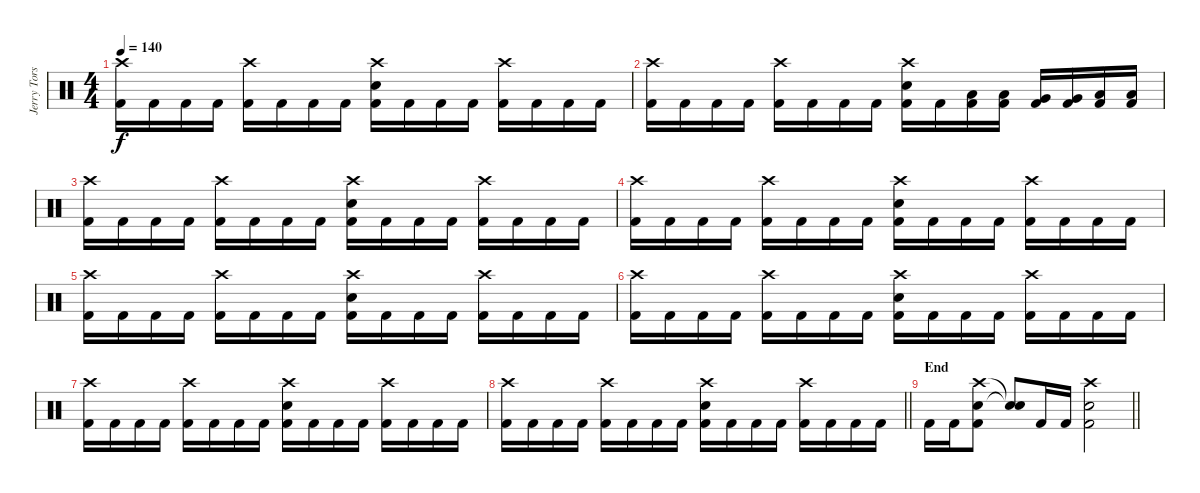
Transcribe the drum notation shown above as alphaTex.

\track ("Jerry Torstensson" "Jerry Tors") {instrument percussion}
\staff {score}
\articulation defaults
\ts (4 4)
\tempo 140
\clef neutral
\ks c
("Crash high (hit)" "Kick (hit) 2").16{dy f} "Kick (hit) 2".16 "Kick (hit) 2".16 "Kick (hit) 2".16 ("Crash high (hit)" "Kick (hit) 2").16 "Kick (hit) 2".16 "Kick (hit) 2".16 "Kick (hit) 2".16 ("Crash high (hit)" "Snare (hit) 2" "Kick (hit) 2").16 "Kick (hit) 2".16 "Kick (hit) 2".16 "Kick (hit) 2".16 ("Crash high (hit)" "Kick (hit) 2").16 "Kick (hit) 2".16 "Kick (hit) 2".16 "Kick (hit) 2".16 |
("Crash high (hit)" "Kick (hit) 2").16 "Kick (hit) 2".16 "Kick (hit) 2".16 "Kick (hit) 2".16 ("Crash high (hit)" "Kick (hit) 2").16 "Kick (hit) 2".16 "Kick (hit) 2".16 "Kick (hit) 2".16 ("Crash high (hit)" "Snare (hit) 2" "Kick (hit) 2").16 "Kick (hit) 2".16 ("Low Tom (hit)" "Kick (hit) 2").16 ("Low Tom (hit)" "Kick (hit) 2").16 ("Very Low Tom (hit)" "Kick (hit) 2").16 ("Very Low Tom (hit)" "Kick (hit) 2").16 ("Low Floor Tom (hit)" "Kick (hit) 2").16 ("Low Floor Tom (hit)" "Kick (hit) 2").16 |
("Crash high (hit)" "Kick (hit) 2").16 "Kick (hit) 2".16 "Kick (hit) 2".16 "Kick (hit) 2".16 ("Crash high (hit)" "Kick (hit) 2").16 "Kick (hit) 2".16 "Kick (hit) 2".16 "Kick (hit) 2".16 ("Crash high (hit)" "Snare (hit) 2" "Kick (hit) 2").16 "Kick (hit) 2".16 "Kick (hit) 2".16 "Kick (hit) 2".16 ("Crash high (hit)" "Kick (hit) 2").16 "Kick (hit) 2".16 "Kick (hit) 2".16 "Kick (hit) 2".16 |
("Crash high (hit)" "Kick (hit) 2").16 "Kick (hit) 2".16 "Kick (hit) 2".16 "Kick (hit) 2".16 ("Crash high (hit)" "Kick (hit) 2").16 "Kick (hit) 2".16 "Kick (hit) 2".16 "Kick (hit) 2".16 ("Crash high (hit)" "Snare (hit) 2" "Kick (hit) 2").16 "Kick (hit) 2".16 "Kick (hit) 2".16 "Kick (hit) 2".16 ("Crash high (hit)" "Kick (hit) 2").16 "Kick (hit) 2".16 "Kick (hit) 2".16 "Kick (hit) 2".16 |
("Crash high (hit)" "Kick (hit) 2").16 "Kick (hit) 2".16 "Kick (hit) 2".16 "Kick (hit) 2".16 ("Crash high (hit)" "Kick (hit) 2").16 "Kick (hit) 2".16 "Kick (hit) 2".16 "Kick (hit) 2".16 ("Crash high (hit)" "Snare (hit) 2" "Kick (hit) 2").16 "Kick (hit) 2".16 "Kick (hit) 2".16 "Kick (hit) 2".16 ("Crash high (hit)" "Kick (hit) 2").16 "Kick (hit) 2".16 "Kick (hit) 2".16 "Kick (hit) 2".16 |
("Crash high (hit)" "Kick (hit) 2").16 "Kick (hit) 2".16 "Kick (hit) 2".16 "Kick (hit) 2".16 ("Crash high (hit)" "Kick (hit) 2").16 "Kick (hit) 2".16 "Kick (hit) 2".16 "Kick (hit) 2".16 ("Crash high (hit)" "Snare (hit) 2" "Kick (hit) 2").16 "Kick (hit) 2".16 "Kick (hit) 2".16 "Kick (hit) 2".16 ("Crash high (hit)" "Kick (hit) 2").16 "Kick (hit) 2".16 "Kick (hit) 2".16 "Kick (hit) 2".16 |
("Crash high (hit)" "Kick (hit) 2").16 "Kick (hit) 2".16 "Kick (hit) 2".16 "Kick (hit) 2".16 ("Crash high (hit)" "Kick (hit) 2").16 "Kick (hit) 2".16 "Kick (hit) 2".16 "Kick (hit) 2".16 ("Crash high (hit)" "Snare (hit) 2" "Kick (hit) 2").16 "Kick (hit) 2".16 "Kick (hit) 2".16 "Kick (hit) 2".16 ("Crash high (hit)" "Kick (hit) 2").16 "Kick (hit) 2".16 "Kick (hit) 2".16 "Kick (hit) 2".16 |
\barLineRight lightlight
("Crash high (hit)" "Kick (hit) 2").16 "Kick (hit) 2".16 "Kick (hit) 2".16 "Kick (hit) 2".16 ("Crash high (hit)" "Kick (hit) 2").16 "Kick (hit) 2".16 "Kick (hit) 2".16 "Kick (hit) 2".16 ("Crash high (hit)" "Snare (hit) 2" "Kick (hit) 2").16 "Kick (hit) 2".16 "Kick (hit) 2".16 "Kick (hit) 2".16 ("Crash high (hit)" "Kick (hit) 2").16 "Kick (hit) 2".16 "Kick (hit) 2".16 "Kick (hit) 2".16 |
\section ("" "End")
\barLineRight lightlight "Kick (hit) 2".16 "Kick (hit) 2".16
("Crash high (hit)" "Snare (hit) 2" "Kick (hit) 2").8 ("Snare (hit)"{t} "Snare (hit)"{t}).8 "Kick (hit) 2".16 "Kick (hit) 2".16 ("Crash high (hit)" "Snare (hit) 2" "Kick (hit) 2").2
